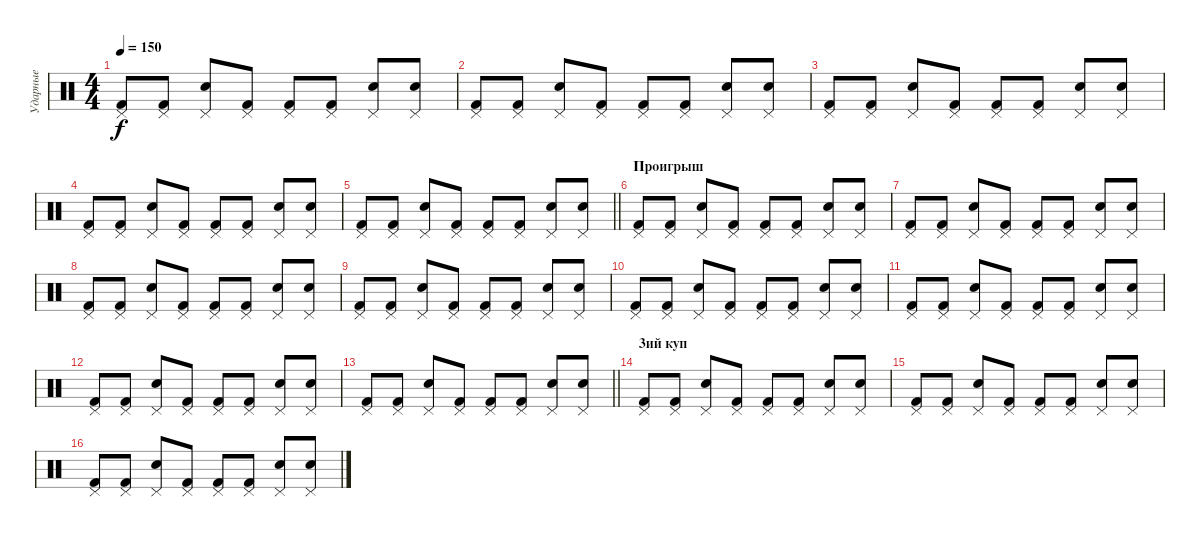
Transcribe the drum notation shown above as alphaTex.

\track ("Ударные" "Ударные") {instrument percussion}
\staff {score}
\articulation defaults
\ts (4 4)
\tempo 150
\clef neutral
\ks c
("Pedal Hi-Hat (hit)" "Kick (hit) 2").8{dy f} ("Pedal Hi-Hat (hit)" "Kick (hit) 2").8 ("Pedal Hi-Hat (hit)" "Electric Snare (hit)").8 ("Pedal Hi-Hat (hit)" "Kick (hit) 2").8 ("Pedal Hi-Hat (hit)" "Kick (hit) 2").8 ("Pedal Hi-Hat (hit)" "Kick (hit) 2").8 ("Pedal Hi-Hat (hit)" "Electric Snare (hit)").8 ("Pedal Hi-Hat (hit)" "Electric Snare (hit)").8 |
("Pedal Hi-Hat (hit)" "Kick (hit) 2").8 ("Pedal Hi-Hat (hit)" "Kick (hit) 2").8 ("Pedal Hi-Hat (hit)" "Electric Snare (hit)").8 ("Pedal Hi-Hat (hit)" "Kick (hit) 2").8 ("Pedal Hi-Hat (hit)" "Kick (hit) 2").8 ("Pedal Hi-Hat (hit)" "Kick (hit) 2").8 ("Pedal Hi-Hat (hit)" "Electric Snare (hit)").8 ("Pedal Hi-Hat (hit)" "Electric Snare (hit)").8 |
("Pedal Hi-Hat (hit)" "Kick (hit) 2").8 ("Pedal Hi-Hat (hit)" "Kick (hit) 2").8 ("Pedal Hi-Hat (hit)" "Electric Snare (hit)").8 ("Pedal Hi-Hat (hit)" "Kick (hit) 2").8 ("Pedal Hi-Hat (hit)" "Kick (hit) 2").8 ("Pedal Hi-Hat (hit)" "Kick (hit) 2").8 ("Pedal Hi-Hat (hit)" "Electric Snare (hit)").8 ("Pedal Hi-Hat (hit)" "Electric Snare (hit)").8 |
("Pedal Hi-Hat (hit)" "Kick (hit) 2").8 ("Pedal Hi-Hat (hit)" "Kick (hit) 2").8 ("Pedal Hi-Hat (hit)" "Electric Snare (hit)").8 ("Pedal Hi-Hat (hit)" "Kick (hit) 2").8 ("Pedal Hi-Hat (hit)" "Kick (hit) 2").8 ("Pedal Hi-Hat (hit)" "Kick (hit) 2").8 ("Pedal Hi-Hat (hit)" "Electric Snare (hit)").8 ("Pedal Hi-Hat (hit)" "Electric Snare (hit)").8 |
\barLineRight lightlight
("Pedal Hi-Hat (hit)" "Kick (hit) 2").8 ("Pedal Hi-Hat (hit)" "Kick (hit) 2").8 ("Pedal Hi-Hat (hit)" "Electric Snare (hit)").8 ("Pedal Hi-Hat (hit)" "Kick (hit) 2").8 ("Pedal Hi-Hat (hit)" "Kick (hit) 2").8 ("Pedal Hi-Hat (hit)" "Kick (hit) 2").8 ("Pedal Hi-Hat (hit)" "Electric Snare (hit)").8 ("Pedal Hi-Hat (hit)" "Electric Snare (hit)").8 |
\section ("" "Проигрыш")
("Pedal Hi-Hat (hit)" "Kick (hit) 2").8 ("Pedal Hi-Hat (hit)" "Kick (hit) 2").8 ("Pedal Hi-Hat (hit)" "Electric Snare (hit)").8 ("Pedal Hi-Hat (hit)" "Kick (hit) 2").8 ("Pedal Hi-Hat (hit)" "Kick (hit) 2").8 ("Pedal Hi-Hat (hit)" "Kick (hit) 2").8 ("Pedal Hi-Hat (hit)" "Electric Snare (hit)").8 ("Pedal Hi-Hat (hit)" "Electric Snare (hit)").8 |
("Pedal Hi-Hat (hit)" "Kick (hit) 2").8 ("Pedal Hi-Hat (hit)" "Kick (hit) 2").8 ("Pedal Hi-Hat (hit)" "Electric Snare (hit)").8 ("Pedal Hi-Hat (hit)" "Kick (hit) 2").8 ("Pedal Hi-Hat (hit)" "Kick (hit) 2").8 ("Pedal Hi-Hat (hit)" "Kick (hit) 2").8 ("Pedal Hi-Hat (hit)" "Electric Snare (hit)").8 ("Pedal Hi-Hat (hit)" "Electric Snare (hit)").8 |
("Pedal Hi-Hat (hit)" "Kick (hit) 2").8 ("Pedal Hi-Hat (hit)" "Kick (hit) 2").8 ("Pedal Hi-Hat (hit)" "Electric Snare (hit)").8 ("Pedal Hi-Hat (hit)" "Kick (hit) 2").8 ("Pedal Hi-Hat (hit)" "Kick (hit) 2").8 ("Pedal Hi-Hat (hit)" "Kick (hit) 2").8 ("Pedal Hi-Hat (hit)" "Electric Snare (hit)").8 ("Pedal Hi-Hat (hit)" "Electric Snare (hit)").8 |
("Pedal Hi-Hat (hit)" "Kick (hit) 2").8 ("Pedal Hi-Hat (hit)" "Kick (hit) 2").8 ("Pedal Hi-Hat (hit)" "Electric Snare (hit)").8 ("Pedal Hi-Hat (hit)" "Kick (hit) 2").8 ("Pedal Hi-Hat (hit)" "Kick (hit) 2").8 ("Pedal Hi-Hat (hit)" "Kick (hit) 2").8 ("Pedal Hi-Hat (hit)" "Electric Snare (hit)").8 ("Pedal Hi-Hat (hit)" "Electric Snare (hit)").8 |
("Pedal Hi-Hat (hit)" "Kick (hit) 2").8 ("Pedal Hi-Hat (hit)" "Kick (hit) 2").8 ("Pedal Hi-Hat (hit)" "Electric Snare (hit)").8 ("Pedal Hi-Hat (hit)" "Kick (hit) 2").8 ("Pedal Hi-Hat (hit)" "Kick (hit) 2").8 ("Pedal Hi-Hat (hit)" "Kick (hit) 2").8 ("Pedal Hi-Hat (hit)" "Electric Snare (hit)").8 ("Pedal Hi-Hat (hit)" "Electric Snare (hit)").8 |
("Pedal Hi-Hat (hit)" "Kick (hit) 2").8 ("Pedal Hi-Hat (hit)" "Kick (hit) 2").8 ("Pedal Hi-Hat (hit)" "Electric Snare (hit)").8 ("Pedal Hi-Hat (hit)" "Kick (hit) 2").8 ("Pedal Hi-Hat (hit)" "Kick (hit) 2").8 ("Pedal Hi-Hat (hit)" "Kick (hit) 2").8 ("Pedal Hi-Hat (hit)" "Electric Snare (hit)").8 ("Pedal Hi-Hat (hit)" "Electric Snare (hit)").8 |
("Pedal Hi-Hat (hit)" "Kick (hit) 2").8 ("Pedal Hi-Hat (hit)" "Kick (hit) 2").8 ("Pedal Hi-Hat (hit)" "Electric Snare (hit)").8 ("Pedal Hi-Hat (hit)" "Kick (hit) 2").8 ("Pedal Hi-Hat (hit)" "Kick (hit) 2").8 ("Pedal Hi-Hat (hit)" "Kick (hit) 2").8 ("Pedal Hi-Hat (hit)" "Electric Snare (hit)").8 ("Pedal Hi-Hat (hit)" "Electric Snare (hit)").8 |
\barLineRight lightlight
("Pedal Hi-Hat (hit)" "Kick (hit) 2").8 ("Pedal Hi-Hat (hit)" "Kick (hit) 2").8 ("Pedal Hi-Hat (hit)" "Electric Snare (hit)").8 ("Pedal Hi-Hat (hit)" "Kick (hit) 2").8 ("Pedal Hi-Hat (hit)" "Kick (hit) 2").8 ("Pedal Hi-Hat (hit)" "Kick (hit) 2").8 ("Pedal Hi-Hat (hit)" "Electric Snare (hit)").8 ("Pedal Hi-Hat (hit)" "Electric Snare (hit)").8 |
\section ("" "3ий куп")
("Pedal Hi-Hat (hit)" "Kick (hit) 2").8 ("Pedal Hi-Hat (hit)" "Kick (hit) 2").8 ("Pedal Hi-Hat (hit)" "Electric Snare (hit)").8 ("Pedal Hi-Hat (hit)" "Kick (hit) 2").8 ("Pedal Hi-Hat (hit)" "Kick (hit) 2").8 ("Pedal Hi-Hat (hit)" "Kick (hit) 2").8 ("Pedal Hi-Hat (hit)" "Electric Snare (hit)").8 ("Pedal Hi-Hat (hit)" "Electric Snare (hit)").8 |
("Pedal Hi-Hat (hit)" "Kick (hit) 2").8 ("Pedal Hi-Hat (hit)" "Kick (hit) 2").8 ("Pedal Hi-Hat (hit)" "Electric Snare (hit)").8 ("Pedal Hi-Hat (hit)" "Kick (hit) 2").8 ("Pedal Hi-Hat (hit)" "Kick (hit) 2").8 ("Pedal Hi-Hat (hit)" "Kick (hit) 2").8 ("Pedal Hi-Hat (hit)" "Electric Snare (hit)").8 ("Pedal Hi-Hat (hit)" "Electric Snare (hit)").8 |
("Pedal Hi-Hat (hit)" "Kick (hit) 2").8 ("Pedal Hi-Hat (hit)" "Kick (hit) 2").8 ("Pedal Hi-Hat (hit)" "Electric Snare (hit)").8 ("Pedal Hi-Hat (hit)" "Kick (hit) 2").8 ("Pedal Hi-Hat (hit)" "Kick (hit) 2").8 ("Pedal Hi-Hat (hit)" "Kick (hit) 2").8 ("Pedal Hi-Hat (hit)" "Electric Snare (hit)").8 ("Pedal Hi-Hat (hit)" "Electric Snare (hit)").8
